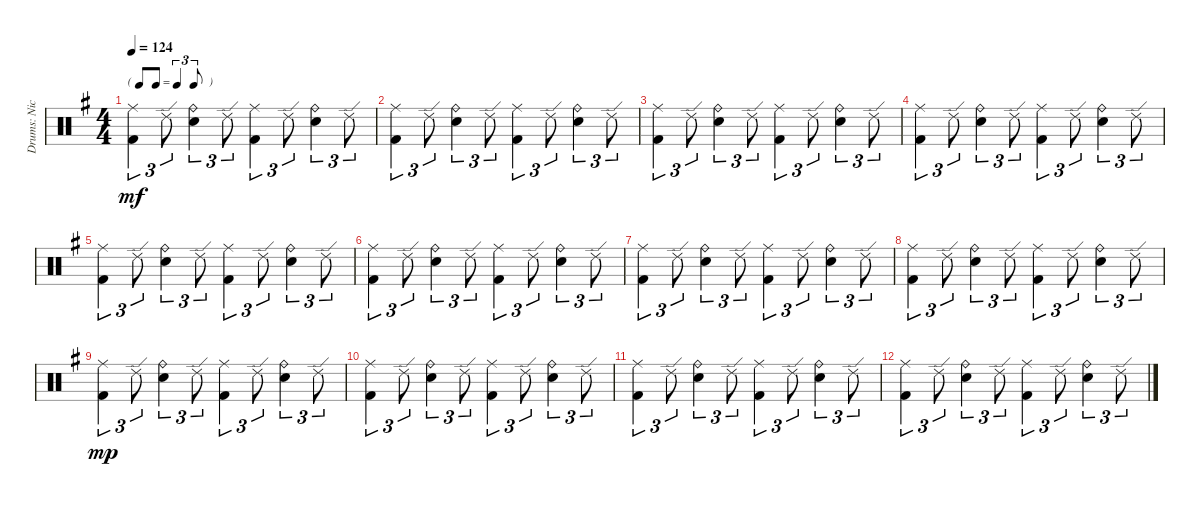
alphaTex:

\track ("Drums: Nick" "Drums: Nic") {instrument percussion}
\staff {score}
\articulation defaults
\ts (4 4)
\tf triplet8th
\tempo 124
\clef neutral
\ks g
("Ride (middle)" "Kick (hit) 2").4{tu (3 2) dy mf} "Ride (edge) 2".8{tu (3 2)} ("Ride (bell)" "Electric Snare (hit)").4{tu (3 2)} "Ride (edge) 2".8{tu (3 2)} ("Ride (middle)" "Kick (hit) 2").4{tu (3 2)} "Ride (edge) 2".8{tu (3 2)} ("Ride (bell)" "Electric Snare (hit)").4{tu (3 2)} "Ride (edge) 2".8{tu (3 2)} |
("Ride (middle)" "Kick (hit) 2").4{tu (3 2)} "Ride (edge) 2".8{tu (3 2)} ("Ride (bell)" "Electric Snare (hit)").4{tu (3 2)} "Ride (edge) 2".8{tu (3 2)} ("Ride (middle)" "Kick (hit) 2").4{tu (3 2)} "Ride (edge) 2".8{tu (3 2)} ("Ride (bell)" "Electric Snare (hit)").4{tu (3 2)} "Ride (edge) 2".8{tu (3 2)} |
("Ride (middle)" "Kick (hit) 2").4{tu (3 2)} "Ride (edge) 2".8{tu (3 2)} ("Ride (bell)" "Electric Snare (hit)").4{tu (3 2)} "Ride (edge) 2".8{tu (3 2)} ("Ride (middle)" "Kick (hit) 2").4{tu (3 2)} "Ride (edge) 2".8{tu (3 2)} ("Ride (bell)" "Electric Snare (hit)").4{tu (3 2)} "Ride (edge) 2".8{tu (3 2)} |
("Ride (middle)" "Kick (hit) 2").4{tu (3 2)} "Ride (edge) 2".8{tu (3 2)} ("Ride (bell)" "Electric Snare (hit)").4{tu (3 2)} "Ride (edge) 2".8{tu (3 2)} ("Ride (middle)" "Kick (hit) 2").4{tu (3 2)} "Ride (edge) 2".8{tu (3 2)} ("Ride (bell)" "Electric Snare (hit)").4{tu (3 2)} "Ride (edge) 2".8{tu (3 2)} |
("Ride (middle)" "Kick (hit) 2").4{tu (3 2)} "Ride (edge) 2".8{tu (3 2)} ("Ride (bell)" "Electric Snare (hit)").4{tu (3 2)} "Ride (edge) 2".8{tu (3 2)} ("Ride (middle)" "Kick (hit) 2").4{tu (3 2)} "Ride (edge) 2".8{tu (3 2)} ("Ride (bell)" "Electric Snare (hit)").4{tu (3 2)} "Ride (edge) 2".8{tu (3 2)} |
("Ride (middle)" "Kick (hit) 2").4{tu (3 2)} "Ride (edge) 2".8{tu (3 2)} ("Ride (bell)" "Electric Snare (hit)").4{tu (3 2)} "Ride (edge) 2".8{tu (3 2)} ("Ride (middle)" "Kick (hit) 2").4{tu (3 2)} "Ride (edge) 2".8{tu (3 2)} ("Ride (bell)" "Electric Snare (hit)").4{tu (3 2)} "Ride (edge) 2".8{tu (3 2)} |
("Ride (middle)" "Kick (hit) 2").4{tu (3 2)} "Ride (edge) 2".8{tu (3 2)} ("Ride (bell)" "Electric Snare (hit)").4{tu (3 2)} "Ride (edge) 2".8{tu (3 2)} ("Ride (middle)" "Kick (hit) 2").4{tu (3 2)} "Ride (edge) 2".8{tu (3 2)} ("Ride (bell)" "Electric Snare (hit)").4{tu (3 2)} "Ride (edge) 2".8{tu (3 2)} |
("Ride (middle)" "Kick (hit) 2").4{tu (3 2)} "Ride (edge) 2".8{tu (3 2)} ("Ride (bell)" "Electric Snare (hit)").4{tu (3 2)} "Ride (edge) 2".8{tu (3 2)} ("Ride (middle)" "Kick (hit) 2").4{tu (3 2)} "Ride (edge) 2".8{tu (3 2)} ("Ride (bell)" "Electric Snare (hit)").4{tu (3 2)} "Ride (edge) 2".8{tu (3 2)} |
("Ride (middle)" "Kick (hit) 2").4{tu (3 2) dy mp} "Ride (edge) 2".8{tu (3 2)} ("Ride (bell)" "Electric Snare (hit)").4{tu (3 2)} "Ride (edge) 2".8{tu (3 2)} ("Ride (middle)" "Kick (hit) 2").4{tu (3 2)} "Ride (edge) 2".8{tu (3 2)} ("Ride (bell)" "Electric Snare (hit)").4{tu (3 2)} "Ride (edge) 2".8{tu (3 2)} |
("Ride (middle)" "Kick (hit) 2").4{tu (3 2)} "Ride (edge) 2".8{tu (3 2)} ("Ride (bell)" "Electric Snare (hit)").4{tu (3 2)} "Ride (edge) 2".8{tu (3 2)} ("Ride (middle)" "Kick (hit) 2").4{tu (3 2)} "Ride (edge) 2".8{tu (3 2)} ("Ride (bell)" "Electric Snare (hit)").4{tu (3 2)} "Ride (edge) 2".8{tu (3 2)} |
("Ride (middle)" "Kick (hit) 2").4{tu (3 2)} "Ride (edge) 2".8{tu (3 2)} ("Ride (bell)" "Electric Snare (hit)").4{tu (3 2)} "Ride (edge) 2".8{tu (3 2)} ("Ride (middle)" "Kick (hit) 2").4{tu (3 2)} "Ride (edge) 2".8{tu (3 2)} ("Ride (bell)" "Electric Snare (hit)").4{tu (3 2)} "Ride (edge) 2".8{tu (3 2)} |
("Ride (middle)" "Kick (hit) 2").4{tu (3 2)} "Ride (edge) 2".8{tu (3 2)} ("Ride (bell)" "Electric Snare (hit)").4{tu (3 2)} "Ride (edge) 2".8{tu (3 2)} ("Ride (middle)" "Kick (hit) 2").4{tu (3 2)} "Ride (edge) 2".8{tu (3 2)} ("Ride (bell)" "Electric Snare (hit)").4{tu (3 2)} "Ride (edge) 2".8{tu (3 2)}
